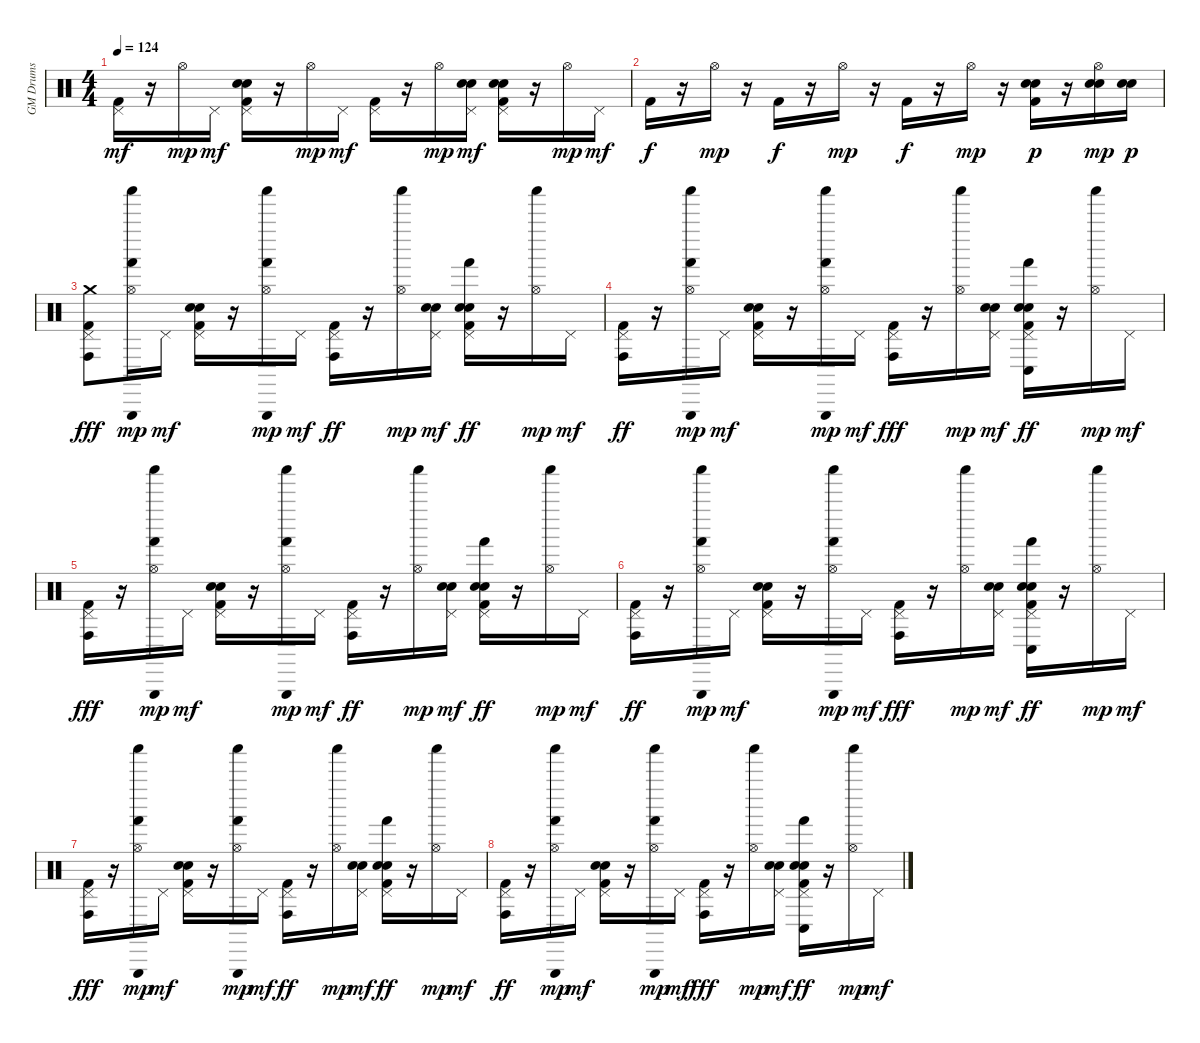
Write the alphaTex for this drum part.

\track ("GM Drums" "GM Drums") {instrument percussion}
\staff {score}
\articulation defaults
\ts (4 4)
\tempo 124
\clef neutral
\ks c
("Kick (hit) 2" "Pedal Hi-Hat (hit)").16{dy mf} r.16 "Hi-Hat (open)".16{dy mp} "Pedal Hi-Hat (hit)".16{dy mf} ("Kick (hit) 2" "Snare (hit) 2" "Hand Clap (hit)" "Pedal Hi-Hat (hit)").16 r.16 "Hi-Hat (open)".16{dy mp} "Pedal Hi-Hat (hit)".16{dy mf} ("Kick (hit) 2" "Pedal Hi-Hat (hit)").16 r.16 "Hi-Hat (open)".16{dy mp} ("Snare (hit) 2" "Hand Clap (hit)" "Pedal Hi-Hat (hit)").16{dy mf} ("Kick (hit) 2" "Snare (hit) 2" "Hand Clap (hit)" "Pedal Hi-Hat (hit)").16 r.16 "Hi-Hat (open)".16{dy mp} "Pedal Hi-Hat (hit)".16{dy mf} |
"Kick (hit) 2".16{dy f} r.16 "Hi-Hat (open)".16{dy mp} r.16 "Kick (hit) 2".16{dy f} r.16 "Hi-Hat (open)".16{dy mp} r.16 "Kick (hit) 2".16{dy f} r.16 "Hi-Hat (open)".16{dy mp} r.16 ("Kick (hit) 2" "Snare (hit) 2" "Hand Clap (hit)").16{dy p} r.16 ("Snare (hit) 2" "Hand Clap (hit)" "Hi-Hat (open)").16{dy mp} ("Snare (hit) 2" "Hand Clap (hit)").16{dy p} |
("Kick (hit) 2" "Pedal Hi-Hat (hit)" "Crash medium (hit)" "Conga high (hit)").8{dy fff} ("Hi-Hat (open)" "Hand (hit)" "Triangle (hit)" "Shaker (hit)").16{dy mp} "Pedal Hi-Hat (hit)".16{dy mf} ("Kick (hit) 2" "Snare (hit) 2" "Hand Clap (hit)" "Pedal Hi-Hat (hit)").16 r.16 ("Hi-Hat (open)" "Hand (hit)" "Triangle (hit)" "Shaker (hit)").16{dy mp} "Pedal Hi-Hat (hit)".16{dy mf} ("Kick (hit) 2" "Pedal Hi-Hat (hit)" "Conga high (hit)").16{dy ff} r.16 ("Hi-Hat (open)" "Shaker (hit)").16{dy mp} ("Snare (hit) 2" "Hand Clap (hit)" "Pedal Hi-Hat (hit)").16{dy mf} ("Kick (hit) 2" "Snare (hit) 2" "Hand Clap (hit)" "Pedal Hi-Hat (hit)" "Hand (hit)").16{dy ff} r.16 ("Hi-Hat (open)" "Shaker (hit)").16{dy mp} "Pedal Hi-Hat (hit)".16{dy mf} |
("Kick (hit) 2" "Pedal Hi-Hat (hit)" "Conga high (hit)").16{dy ff} r.16 ("Hi-Hat (open)" "Hand (hit)" "Triangle (hit)" "Shaker (hit)").16{dy mp} "Pedal Hi-Hat (hit)".16{dy mf} ("Kick (hit) 2" "Snare (hit) 2" "Hand Clap (hit)" "Pedal Hi-Hat (hit)").16 r.16 ("Hi-Hat (open)" "Hand (hit)" "Triangle (hit)" "Shaker (hit)").16{dy mp} "Pedal Hi-Hat (hit)".16{dy mf} ("Kick (hit) 2" "Pedal Hi-Hat (hit)" "Conga high (hit)").16{dy fff} r.16 ("Hi-Hat (open)" "Shaker (hit)").16{dy mp} ("Snare (hit) 2" "Hand Clap (hit)" "Pedal Hi-Hat (hit)").16{dy mf} ("Kick (hit) 2" "Snare (hit) 2" "Hand Clap (hit)" "Pedal Hi-Hat (hit)" "Hand (hit)" "Conga low (hit)").16{dy ff} r.16 ("Hi-Hat (open)" "Shaker (hit)").16{dy mp} "Pedal Hi-Hat (hit)".16{dy mf} |
("Kick (hit) 2" "Pedal Hi-Hat (hit)" "Conga high (hit)").16{dy fff} r.16 ("Hi-Hat (open)" "Hand (hit)" "Triangle (hit)" "Shaker (hit)").16{dy mp} "Pedal Hi-Hat (hit)".16{dy mf} ("Kick (hit) 2" "Snare (hit) 2" "Hand Clap (hit)" "Pedal Hi-Hat (hit)").16 r.16 ("Hi-Hat (open)" "Hand (hit)" "Triangle (hit)" "Shaker (hit)").16{dy mp} "Pedal Hi-Hat (hit)".16{dy mf} ("Kick (hit) 2" "Pedal Hi-Hat (hit)" "Conga high (hit)").16{dy ff} r.16 ("Hi-Hat (open)" "Shaker (hit)").16{dy mp} ("Snare (hit) 2" "Hand Clap (hit)" "Pedal Hi-Hat (hit)").16{dy mf} ("Kick (hit) 2" "Snare (hit) 2" "Hand Clap (hit)" "Pedal Hi-Hat (hit)" "Hand (hit)").16{dy ff} r.16 ("Hi-Hat (open)" "Shaker (hit)").16{dy mp} "Pedal Hi-Hat (hit)".16{dy mf} |
("Kick (hit) 2" "Pedal Hi-Hat (hit)" "Conga high (hit)").16{dy ff} r.16 ("Hi-Hat (open)" "Hand (hit)" "Triangle (hit)" "Shaker (hit)").16{dy mp} "Pedal Hi-Hat (hit)".16{dy mf} ("Kick (hit) 2" "Snare (hit) 2" "Hand Clap (hit)" "Pedal Hi-Hat (hit)").16 r.16 ("Hi-Hat (open)" "Hand (hit)" "Triangle (hit)" "Shaker (hit)").16{dy mp} "Pedal Hi-Hat (hit)".16{dy mf} ("Kick (hit) 2" "Pedal Hi-Hat (hit)" "Conga high (hit)").16{dy fff} r.16 ("Hi-Hat (open)" "Shaker (hit)").16{dy mp} ("Snare (hit) 2" "Hand Clap (hit)" "Pedal Hi-Hat (hit)").16{dy mf} ("Kick (hit) 2" "Snare (hit) 2" "Hand Clap (hit)" "Pedal Hi-Hat (hit)" "Hand (hit)" "Conga low (hit)").16{dy ff} r.16 ("Hi-Hat (open)" "Shaker (hit)").16{dy mp} "Pedal Hi-Hat (hit)".16{dy mf} |
("Kick (hit) 2" "Pedal Hi-Hat (hit)" "Conga high (hit)").16{dy fff} r.16 ("Hi-Hat (open)" "Hand (hit)" "Triangle (hit)" "Shaker (hit)").16{dy mp} "Pedal Hi-Hat (hit)".16{dy mf} ("Kick (hit) 2" "Snare (hit) 2" "Hand Clap (hit)" "Pedal Hi-Hat (hit)").16 r.16 ("Hi-Hat (open)" "Hand (hit)" "Triangle (hit)" "Shaker (hit)").16{dy mp} "Pedal Hi-Hat (hit)".16{dy mf} ("Kick (hit) 2" "Pedal Hi-Hat (hit)" "Conga high (hit)").16{dy ff} r.16 ("Hi-Hat (open)" "Shaker (hit)").16{dy mp} ("Snare (hit) 2" "Hand Clap (hit)" "Pedal Hi-Hat (hit)").16{dy mf} ("Kick (hit) 2" "Snare (hit) 2" "Hand Clap (hit)" "Pedal Hi-Hat (hit)" "Hand (hit)").16{dy ff} r.16 ("Hi-Hat (open)" "Shaker (hit)").16{dy mp} "Pedal Hi-Hat (hit)".16{dy mf} |
("Kick (hit) 2" "Pedal Hi-Hat (hit)" "Conga high (hit)").16{dy ff} r.16 ("Hi-Hat (open)" "Hand (hit)" "Triangle (hit)" "Shaker (hit)").16{dy mp} "Pedal Hi-Hat (hit)".16{dy mf} ("Kick (hit) 2" "Snare (hit) 2" "Hand Clap (hit)" "Pedal Hi-Hat (hit)").16 r.16 ("Hi-Hat (open)" "Hand (hit)" "Triangle (hit)" "Shaker (hit)").16{dy mp} "Pedal Hi-Hat (hit)".16{dy mf} ("Kick (hit) 2" "Pedal Hi-Hat (hit)" "Conga high (hit)").16{dy fff} r.16 ("Hi-Hat (open)" "Shaker (hit)").16{dy mp} ("Snare (hit) 2" "Hand Clap (hit)" "Pedal Hi-Hat (hit)").16{dy mf} ("Kick (hit) 2" "Snare (hit) 2" "Hand Clap (hit)" "Pedal Hi-Hat (hit)" "Hand (hit)" "Conga low (hit)").16{dy ff} r.16 ("Hi-Hat (open)" "Shaker (hit)").16{dy mp} "Pedal Hi-Hat (hit)".16{dy mf}
